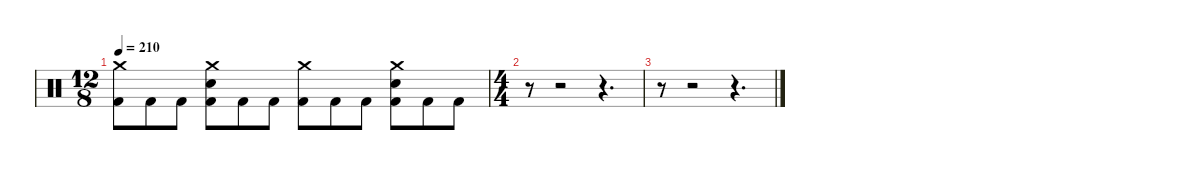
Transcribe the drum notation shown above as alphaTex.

\defaultSystemsLayout 4
\hideDynamics
\bracketExtendMode nobrackets
\singleTrackTrackNamePolicy hidden
\multiTrackTrackNamePolicy hidden
\firstSystemTrackNameMode fullname
\firstSystemTrackNameOrientation horizontal
\otherSystemsTrackNameOrientation horizontal
\track ("Beats" "drm.") {instrument percussion}
\staff {score}
\articulation defaults
\ts (12 8)
\tempo 210
\clef neutral
\ks c
("Crash medium (hit)" "Kick (hit) 2").8{dy fff} "Kick (hit) 2".8{dy f} "Kick (hit) 2".8 ("Crash medium (hit)" "Snare (hit) 2" "Kick (hit) 2").8 "Kick (hit) 2".8 "Kick (hit) 2".8 ("Crash medium (hit)" "Kick (hit) 2").8 "Kick (hit) 2".8 "Kick (hit) 2".8 ("Crash medium (hit)" "Snare (hit) 2" "Kick (hit) 2").8 "Kick (hit) 2".8 "Kick (hit) 2".8 |
\ts (4 4)
\beaming (8 2 2 2 2)
r.8 r.2 r.4{d} |
r.8 r.2 r.4{d}
